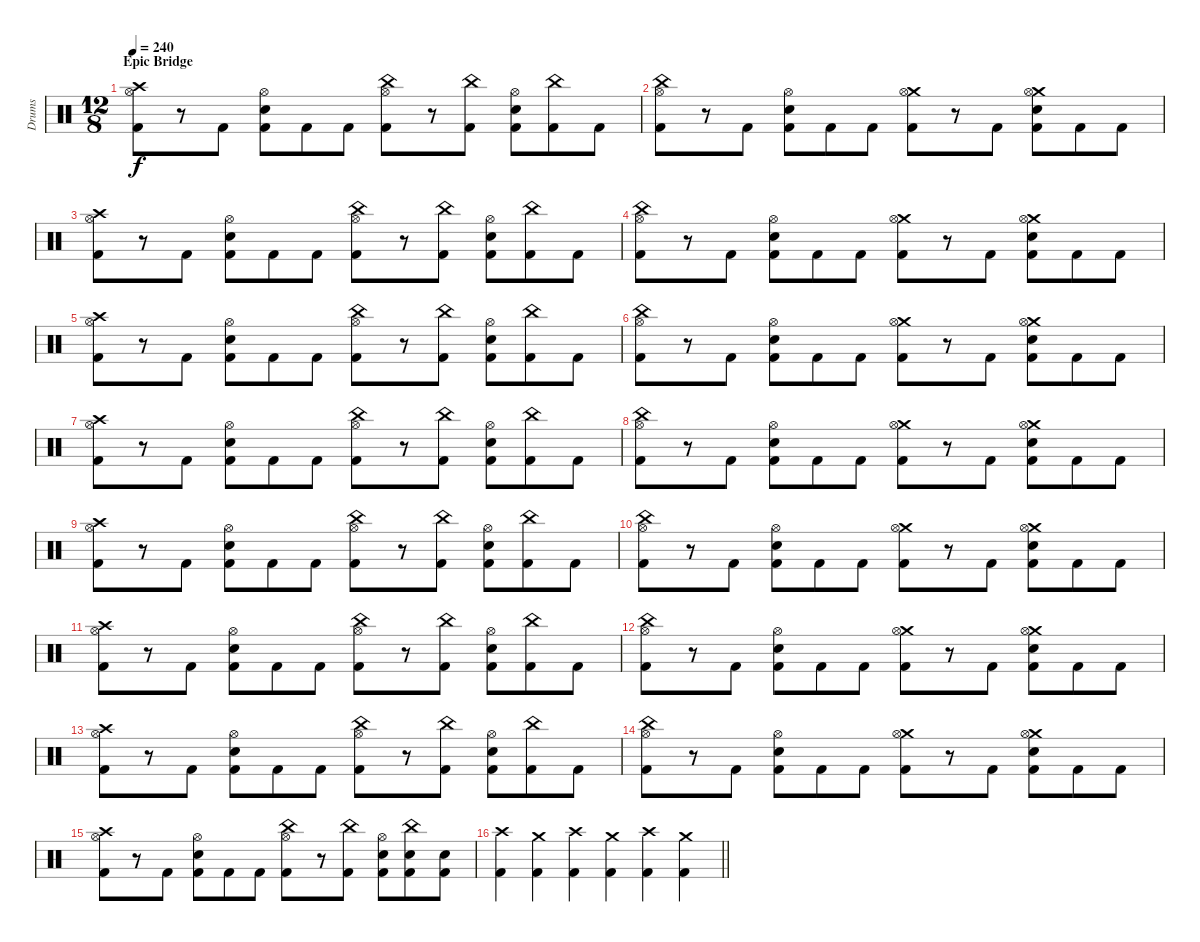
\track ("Drums" "Drums") {instrument percussion}
\staff {score}
\articulation defaults
\ts (12 8)
\section ("" "Epic Bridge")
\tempo 240
\clef neutral
\ks c
("Crash high (hit)" "Hi-Hat (open)" "Kick (hit) 2").8{dy f} r.8 "Kick (hit) 2".8 ("Hi-Hat (open)" "Snare (hit) 2" "Kick (hit) 2").8 "Kick (hit) 2".8 "Kick (hit) 2".8 ("China (hit)" "Hi-Hat (open)" "Kick (hit) 2").8 r.8 ("China (hit)" "Kick (hit) 2").8 ("Hi-Hat (open)" "Snare (hit) 2" "Kick (hit) 2").8 ("China (hit)" "Kick (hit) 2").8 "Kick (hit) 2".8 |
("China (hit)" "Hi-Hat (open)" "Kick (hit) 2").8 r.8 "Kick (hit) 2".8 ("Hi-Hat (open)" "Snare (hit) 2" "Kick (hit) 2").8 "Kick (hit) 2".8 "Kick (hit) 2".8 ("Crash medium (hit)" "Hi-Hat (open)" "Kick (hit) 2").8 r.8 "Kick (hit) 2".8 ("Crash medium (hit)" "Hi-Hat (open)" "Snare (hit) 2" "Kick (hit) 2").8 "Kick (hit) 2".8 "Kick (hit) 2".8 |
("Crash high (hit)" "Hi-Hat (open)" "Kick (hit) 2").8 r.8 "Kick (hit) 2".8 ("Hi-Hat (open)" "Snare (hit) 2" "Kick (hit) 2").8 "Kick (hit) 2".8 "Kick (hit) 2".8 ("China (hit)" "Hi-Hat (open)" "Kick (hit) 2").8 r.8 ("China (hit)" "Kick (hit) 2").8 ("Hi-Hat (open)" "Snare (hit) 2" "Kick (hit) 2").8 ("China (hit)" "Kick (hit) 2").8 "Kick (hit) 2".8 |
("China (hit)" "Hi-Hat (open)" "Kick (hit) 2").8 r.8 "Kick (hit) 2".8 ("Hi-Hat (open)" "Snare (hit) 2" "Kick (hit) 2").8 "Kick (hit) 2".8 "Kick (hit) 2".8 ("Crash medium (hit)" "Hi-Hat (open)" "Kick (hit) 2").8 r.8 "Kick (hit) 2".8 ("Crash medium (hit)" "Hi-Hat (open)" "Snare (hit) 2" "Kick (hit) 2").8 "Kick (hit) 2".8 "Kick (hit) 2".8 |
("Crash high (hit)" "Hi-Hat (open)" "Kick (hit) 2").8 r.8 "Kick (hit) 2".8 ("Hi-Hat (open)" "Snare (hit) 2" "Kick (hit) 2").8 "Kick (hit) 2".8 "Kick (hit) 2".8 ("China (hit)" "Hi-Hat (open)" "Kick (hit) 2").8 r.8 ("China (hit)" "Kick (hit) 2").8 ("Hi-Hat (open)" "Snare (hit) 2" "Kick (hit) 2").8 ("China (hit)" "Kick (hit) 2").8 "Kick (hit) 2".8 |
("China (hit)" "Hi-Hat (open)" "Kick (hit) 2").8 r.8 "Kick (hit) 2".8 ("Hi-Hat (open)" "Snare (hit) 2" "Kick (hit) 2").8 "Kick (hit) 2".8 "Kick (hit) 2".8 ("Crash medium (hit)" "Hi-Hat (open)" "Kick (hit) 2").8 r.8 "Kick (hit) 2".8 ("Crash medium (hit)" "Hi-Hat (open)" "Snare (hit) 2" "Kick (hit) 2").8 "Kick (hit) 2".8 "Kick (hit) 2".8 |
("Crash high (hit)" "Hi-Hat (open)" "Kick (hit) 2").8 r.8 "Kick (hit) 2".8 ("Hi-Hat (open)" "Snare (hit) 2" "Kick (hit) 2").8 "Kick (hit) 2".8 "Kick (hit) 2".8 ("China (hit)" "Hi-Hat (open)" "Kick (hit) 2").8 r.8 ("China (hit)" "Kick (hit) 2").8 ("Hi-Hat (open)" "Snare (hit) 2" "Kick (hit) 2").8 ("China (hit)" "Kick (hit) 2").8 "Kick (hit) 2".8 |
("China (hit)" "Hi-Hat (open)" "Kick (hit) 2").8 r.8 "Kick (hit) 2".8 ("Hi-Hat (open)" "Snare (hit) 2" "Kick (hit) 2").8 "Kick (hit) 2".8 "Kick (hit) 2".8 ("Crash medium (hit)" "Hi-Hat (open)" "Kick (hit) 2").8 r.8 "Kick (hit) 2".8 ("Crash medium (hit)" "Hi-Hat (open)" "Snare (hit) 2" "Kick (hit) 2").8 "Kick (hit) 2".8 "Kick (hit) 2".8 |
("Crash high (hit)" "Hi-Hat (open)" "Kick (hit) 2").8 r.8 "Kick (hit) 2".8 ("Hi-Hat (open)" "Snare (hit) 2" "Kick (hit) 2").8 "Kick (hit) 2".8 "Kick (hit) 2".8 ("China (hit)" "Hi-Hat (open)" "Kick (hit) 2").8 r.8 ("China (hit)" "Kick (hit) 2").8 ("Hi-Hat (open)" "Snare (hit) 2" "Kick (hit) 2").8 ("China (hit)" "Kick (hit) 2").8 "Kick (hit) 2".8 |
("China (hit)" "Hi-Hat (open)" "Kick (hit) 2").8 r.8 "Kick (hit) 2".8 ("Hi-Hat (open)" "Snare (hit) 2" "Kick (hit) 2").8 "Kick (hit) 2".8 "Kick (hit) 2".8 ("Crash medium (hit)" "Hi-Hat (open)" "Kick (hit) 2").8 r.8 "Kick (hit) 2".8 ("Crash medium (hit)" "Hi-Hat (open)" "Snare (hit) 2" "Kick (hit) 2").8 "Kick (hit) 2".8 "Kick (hit) 2".8 |
("Crash high (hit)" "Hi-Hat (open)" "Kick (hit) 2").8 r.8 "Kick (hit) 2".8 ("Hi-Hat (open)" "Snare (hit) 2" "Kick (hit) 2").8 "Kick (hit) 2".8 "Kick (hit) 2".8 ("China (hit)" "Hi-Hat (open)" "Kick (hit) 2").8 r.8 ("China (hit)" "Kick (hit) 2").8 ("Hi-Hat (open)" "Snare (hit) 2" "Kick (hit) 2").8 ("China (hit)" "Kick (hit) 2").8 "Kick (hit) 2".8 |
("China (hit)" "Hi-Hat (open)" "Kick (hit) 2").8 r.8 "Kick (hit) 2".8 ("Hi-Hat (open)" "Snare (hit) 2" "Kick (hit) 2").8 "Kick (hit) 2".8 "Kick (hit) 2".8 ("Crash medium (hit)" "Hi-Hat (open)" "Kick (hit) 2").8 r.8 "Kick (hit) 2".8 ("Crash medium (hit)" "Hi-Hat (open)" "Snare (hit) 2" "Kick (hit) 2").8 "Kick (hit) 2".8 "Kick (hit) 2".8 |
("Crash high (hit)" "Hi-Hat (open)" "Kick (hit) 2").8 r.8 "Kick (hit) 2".8 ("Hi-Hat (open)" "Snare (hit) 2" "Kick (hit) 2").8 "Kick (hit) 2".8 "Kick (hit) 2".8 ("China (hit)" "Hi-Hat (open)" "Kick (hit) 2").8 r.8 ("China (hit)" "Kick (hit) 2").8 ("Hi-Hat (open)" "Snare (hit) 2" "Kick (hit) 2").8 ("China (hit)" "Kick (hit) 2").8 "Kick (hit) 2".8 |
("China (hit)" "Hi-Hat (open)" "Kick (hit) 2").8 r.8 "Kick (hit) 2".8 ("Hi-Hat (open)" "Snare (hit) 2" "Kick (hit) 2").8 "Kick (hit) 2".8 "Kick (hit) 2".8 ("Crash medium (hit)" "Hi-Hat (open)" "Kick (hit) 2").8 r.8 "Kick (hit) 2".8 ("Crash medium (hit)" "Hi-Hat (open)" "Snare (hit) 2" "Kick (hit) 2").8 "Kick (hit) 2".8 "Kick (hit) 2".8 |
("Crash high (hit)" "Hi-Hat (open)" "Kick (hit) 2").8 r.8 "Kick (hit) 2".8 ("Hi-Hat (open)" "Snare (hit) 2" "Kick (hit) 2").8 "Kick (hit) 2".8 "Kick (hit) 2".8 ("China (hit)" "Hi-Hat (open)" "Kick (hit) 2").8 r.8 ("China (hit)" "Kick (hit) 2").8 ("Hi-Hat (open)" "Snare (hit) 2" "Kick (hit) 2").8 ("China (hit)" "Snare (hit) 2" "Kick (hit) 2").8 ("Snare (hit) 2" "Kick (hit) 2").8 |
\barLineRight lightlight
("Crash high (hit)" "Kick (hit) 2").4 ("Crash medium (hit)" "Kick (hit) 2").4 ("Crash high (hit)" "Kick (hit) 2").4 ("Crash medium (hit)" "Kick (hit) 2").4 ("Crash high (hit)" "Kick (hit) 2").4 ("Crash medium (hit)" "Kick (hit) 2").4
